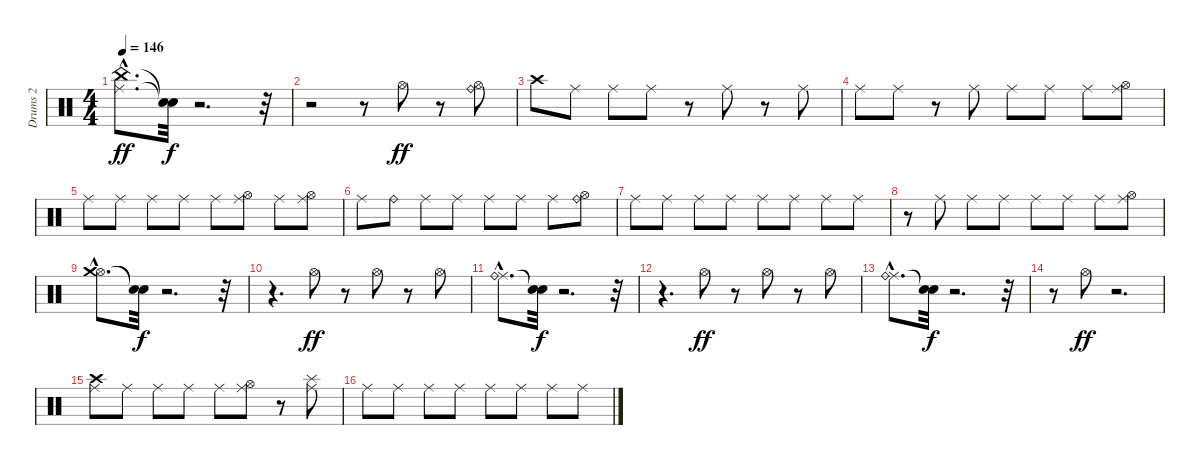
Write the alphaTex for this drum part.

\track ("Drums 2" "Drums 2") {instrument percussion}
\staff {score}
\articulation defaults
\ts (4 4)
\tempo 146
\clef neutral
\ks c
("Ride (middle)"{hac} "China (hit)"{hac}).8{d dy ff} ("Snare (hit)"{t} "Snare (hit)"{t}).32{dy f} r.2{d} r.32 |
r.2 r.8 "Hi-Hat (open)".8{dy ff} r.8 ("Hi-Hat (open)" "Ride (bell)").8 |
"Crash high (hit)".8 "Ride (middle)".8 "Ride (middle)".8 "Ride (middle)".8 r.8 "Ride (middle)".8 r.8 "Ride (middle)".8 |
"Ride (middle)".8 "Ride (middle)".8 r.8 "Ride (middle)".8 "Ride (middle)".8 "Ride (middle)".8 "Ride (middle)".8 ("Hi-Hat (open)" "Ride (middle)").8 |
"Ride (middle)".8 "Ride (middle)".8 "Ride (middle)".8 "Ride (middle)".8 "Ride (middle)".8 ("Hi-Hat (open)" "Ride (middle)").8 "Ride (middle)".8 ("Hi-Hat (open)" "Ride (middle)").8 |
"Ride (middle)".8 "Ride (bell)".8 "Ride (middle)".8 "Ride (middle)".8 "Ride (middle)".8 "Ride (middle)".8 "Ride (middle)".8 ("Hi-Hat (open)" "Ride (bell)").8 |
"Ride (middle)".8 "Ride (middle)".8 "Ride (middle)".8 "Ride (middle)".8 "Ride (middle)".8 "Ride (middle)".8 "Ride (middle)".8 "Ride (middle)".8 |
r.8 "Ride (middle)".8 "Ride (middle)".8 "Ride (middle)".8 "Ride (middle)".8 "Ride (middle)".8 "Ride (middle)".8 ("Hi-Hat (open)" "Ride (middle)").8 |
("Hi-Hat (open)"{hac} "Crash medium (hit)"{hac}).8{d} ("Snare (hit)"{t} "Snare (hit)"{t}).32{dy f} r.2{d} r.32 |
r.4{d} "Hi-Hat (open)".8{dy ff} r.8 "Hi-Hat (open)".8 r.8 "Hi-Hat (open)".8 |
("Ride (middle)"{hac} "Ride (bell)"{hac}).8{d} ("Snare (hit)"{t} "Snare (hit)"{t}).32{dy f} r.2{d} r.32 |
r.4{d} "Hi-Hat (open)".8{dy ff} r.8 "Hi-Hat (open)".8 r.8 "Hi-Hat (open)".8 |
("Ride (middle)"{hac} "Ride (bell)"{hac}).8{d} ("Snare (hit)"{t} "Snare (hit)"{t}).32{dy f} r.2{d} r.32 |
r.8 "Hi-Hat (open)".8{dy ff} r.2{d} |
("Crash high (hit)" "Ride (middle)").8 "Ride (middle)".8 "Ride (middle)".8 "Ride (middle)".8 "Ride (middle)".8 ("Hi-Hat (open)" "Ride (middle)").8 r.8 ("Ride (middle)" "Splash (hit)").8 |
"Ride (middle)".8 "Ride (middle)".8 "Ride (middle)".8 "Ride (middle)".8 "Ride (middle)".8 "Ride (middle)".8 "Ride (middle)".8 "Ride (middle)".8
